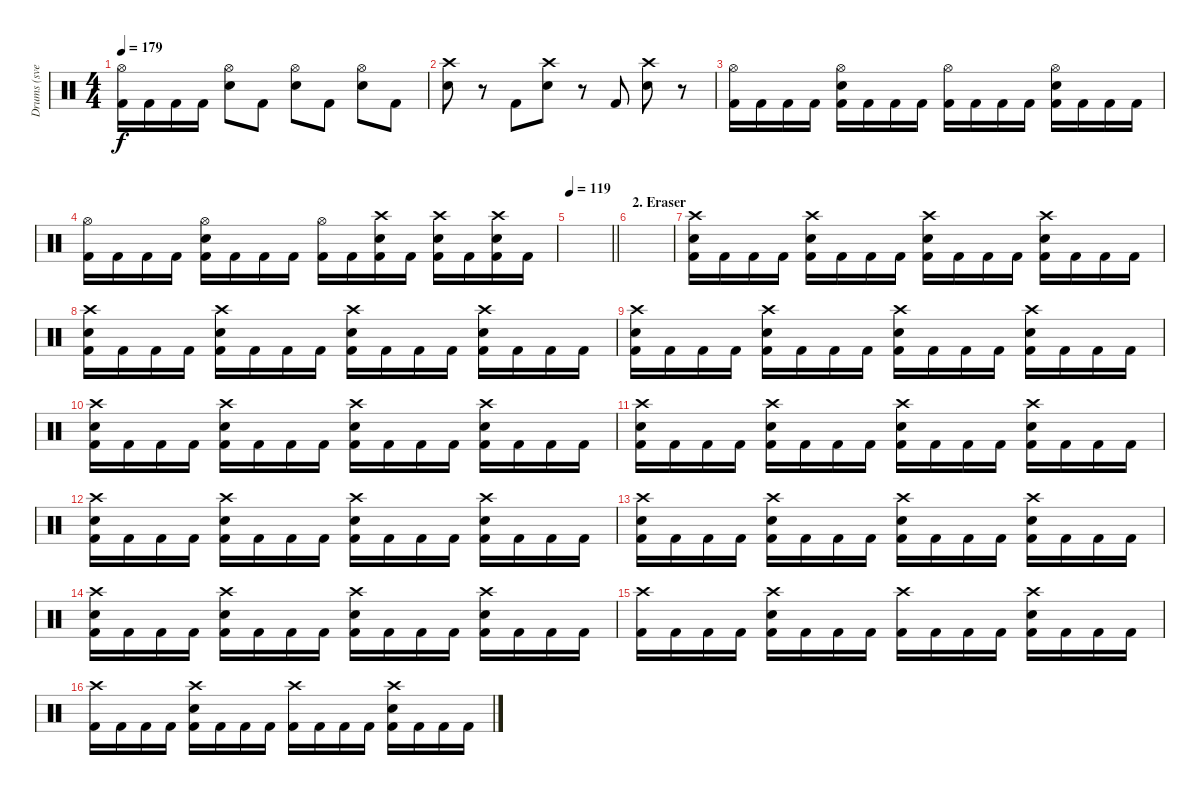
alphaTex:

\track ("Drums (svelle)" "Drums (sve") {instrument percussion}
\staff {score}
\articulation defaults
\ts (4 4)
\tempo 179
\clef neutral
\ks c
("Hi-Hat (open)" "Kick (hit) 2").16{dy f} "Kick (hit) 2".16 "Kick (hit) 2".16 "Kick (hit) 2".16 ("Hi-Hat (open)" "Electric Snare (hit)").8 "Kick (hit) 2".8 ("Hi-Hat (open)" "Electric Snare (hit)").8 "Kick (hit) 2".8 ("Hi-Hat (open)" "Electric Snare (hit)").8 "Kick (hit) 2".8 |
("Crash high (hit)" "Electric Snare (hit)").8 r.8 "Kick (hit) 2".8 ("Crash high (hit)" "Electric Snare (hit)").8 r.8 "Kick (hit) 2".8 ("Crash high (hit)" "Electric Snare (hit)").8 r.8 |
("Hi-Hat (open)" "Kick (hit) 2").16 "Kick (hit) 2".16 "Kick (hit) 2".16 "Kick (hit) 2".16 ("Hi-Hat (open)" "Electric Snare (hit)" "Kick (hit) 2").16 "Kick (hit) 2".16 "Kick (hit) 2".16 "Kick (hit) 2".16 ("Hi-Hat (open)" "Kick (hit) 2").16 "Kick (hit) 2".16 "Kick (hit) 2".16 "Kick (hit) 2".16 ("Hi-Hat (open)" "Electric Snare (hit)" "Kick (hit) 2").16 "Kick (hit) 2".16 "Kick (hit) 2".16 "Kick (hit) 2".16 |
("Hi-Hat (open)" "Kick (hit) 2").16 "Kick (hit) 2".16 "Kick (hit) 2".16 "Kick (hit) 2".16 ("Hi-Hat (open)" "Electric Snare (hit)" "Kick (hit) 2").16 "Kick (hit) 2".16 "Kick (hit) 2".16 "Kick (hit) 2".16 ("Hi-Hat (open)" "Kick (hit) 2").16 "Kick (hit) 2".16 ("Crash high (hit)" "Electric Snare (hit)" "Kick (hit) 2").16 "Kick (hit) 2".16 ("Crash high (hit)" "Electric Snare (hit)" "Kick (hit) 2").16 "Kick (hit) 2".16 ("Crash high (hit)" "Electric Snare (hit)" "Kick (hit) 2").16 "Kick (hit) 2".16 |
\tempo 119
\barLineRight lightlight
|
\section ("" "2. Eraser")
|
("Crash high (hit)" "Electric Snare (hit)" "Kick (hit) 2").16 "Kick (hit) 2".16 "Kick (hit) 2".16 "Kick (hit) 2".16 ("Crash high (hit)" "Electric Snare (hit)" "Kick (hit) 2").16 "Kick (hit) 2".16 "Kick (hit) 2".16 "Kick (hit) 2".16 ("Crash high (hit)" "Electric Snare (hit)" "Kick (hit) 2").16 "Kick (hit) 2".16 "Kick (hit) 2".16 "Kick (hit) 2".16 ("Crash high (hit)" "Electric Snare (hit)" "Kick (hit) 2").16 "Kick (hit) 2".16 "Kick (hit) 2".16 "Kick (hit) 2".16 |
("Crash high (hit)" "Electric Snare (hit)" "Kick (hit) 2").16 "Kick (hit) 2".16 "Kick (hit) 2".16 "Kick (hit) 2".16 ("Crash high (hit)" "Electric Snare (hit)" "Kick (hit) 2").16 "Kick (hit) 2".16 "Kick (hit) 2".16 "Kick (hit) 2".16 ("Crash high (hit)" "Electric Snare (hit)" "Kick (hit) 2").16 "Kick (hit) 2".16 "Kick (hit) 2".16 "Kick (hit) 2".16 ("Crash high (hit)" "Electric Snare (hit)" "Kick (hit) 2").16 "Kick (hit) 2".16 "Kick (hit) 2".16 "Kick (hit) 2".16 |
("Crash high (hit)" "Electric Snare (hit)" "Kick (hit) 2").16 "Kick (hit) 2".16 "Kick (hit) 2".16 "Kick (hit) 2".16 ("Crash high (hit)" "Electric Snare (hit)" "Kick (hit) 2").16 "Kick (hit) 2".16 "Kick (hit) 2".16 "Kick (hit) 2".16 ("Crash high (hit)" "Electric Snare (hit)" "Kick (hit) 2").16 "Kick (hit) 2".16 "Kick (hit) 2".16 "Kick (hit) 2".16 ("Crash high (hit)" "Electric Snare (hit)" "Kick (hit) 2").16 "Kick (hit) 2".16 "Kick (hit) 2".16 "Kick (hit) 2".16 |
("Crash high (hit)" "Electric Snare (hit)" "Kick (hit) 2").16 "Kick (hit) 2".16 "Kick (hit) 2".16 "Kick (hit) 2".16 ("Crash high (hit)" "Electric Snare (hit)" "Kick (hit) 2").16 "Kick (hit) 2".16 "Kick (hit) 2".16 "Kick (hit) 2".16 ("Crash high (hit)" "Electric Snare (hit)" "Kick (hit) 2").16 "Kick (hit) 2".16 "Kick (hit) 2".16 "Kick (hit) 2".16 ("Crash high (hit)" "Electric Snare (hit)" "Kick (hit) 2").16 "Kick (hit) 2".16 "Kick (hit) 2".16 "Kick (hit) 2".16 |
("Crash high (hit)" "Electric Snare (hit)" "Kick (hit) 2").16 "Kick (hit) 2".16 "Kick (hit) 2".16 "Kick (hit) 2".16 ("Crash high (hit)" "Electric Snare (hit)" "Kick (hit) 2").16 "Kick (hit) 2".16 "Kick (hit) 2".16 "Kick (hit) 2".16 ("Crash high (hit)" "Electric Snare (hit)" "Kick (hit) 2").16 "Kick (hit) 2".16 "Kick (hit) 2".16 "Kick (hit) 2".16 ("Crash high (hit)" "Electric Snare (hit)" "Kick (hit) 2").16 "Kick (hit) 2".16 "Kick (hit) 2".16 "Kick (hit) 2".16 |
("Crash high (hit)" "Electric Snare (hit)" "Kick (hit) 2").16 "Kick (hit) 2".16 "Kick (hit) 2".16 "Kick (hit) 2".16 ("Crash high (hit)" "Electric Snare (hit)" "Kick (hit) 2").16 "Kick (hit) 2".16 "Kick (hit) 2".16 "Kick (hit) 2".16 ("Crash high (hit)" "Electric Snare (hit)" "Kick (hit) 2").16 "Kick (hit) 2".16 "Kick (hit) 2".16 "Kick (hit) 2".16 ("Crash high (hit)" "Electric Snare (hit)" "Kick (hit) 2").16 "Kick (hit) 2".16 "Kick (hit) 2".16 "Kick (hit) 2".16 |
("Crash high (hit)" "Electric Snare (hit)" "Kick (hit) 2").16 "Kick (hit) 2".16 "Kick (hit) 2".16 "Kick (hit) 2".16 ("Crash high (hit)" "Electric Snare (hit)" "Kick (hit) 2").16 "Kick (hit) 2".16 "Kick (hit) 2".16 "Kick (hit) 2".16 ("Crash high (hit)" "Electric Snare (hit)" "Kick (hit) 2").16 "Kick (hit) 2".16 "Kick (hit) 2".16 "Kick (hit) 2".16 ("Crash high (hit)" "Electric Snare (hit)" "Kick (hit) 2").16 "Kick (hit) 2".16 "Kick (hit) 2".16 "Kick (hit) 2".16 |
("Crash high (hit)" "Electric Snare (hit)" "Kick (hit) 2").16 "Kick (hit) 2".16 "Kick (hit) 2".16 "Kick (hit) 2".16 ("Crash high (hit)" "Electric Snare (hit)" "Kick (hit) 2").16 "Kick (hit) 2".16 "Kick (hit) 2".16 "Kick (hit) 2".16 ("Crash high (hit)" "Electric Snare (hit)" "Kick (hit) 2").16 "Kick (hit) 2".16 "Kick (hit) 2".16 "Kick (hit) 2".16 ("Crash high (hit)" "Electric Snare (hit)" "Kick (hit) 2").16 "Kick (hit) 2".16 "Kick (hit) 2".16 "Kick (hit) 2".16 |
("Crash high (hit)" "Kick (hit) 2").16 "Kick (hit) 2".16 "Kick (hit) 2".16 "Kick (hit) 2".16 ("Crash high (hit)" "Electric Snare (hit)" "Kick (hit) 2").16 "Kick (hit) 2".16 "Kick (hit) 2".16 "Kick (hit) 2".16 ("Crash high (hit)" "Kick (hit) 2").16 "Kick (hit) 2".16 "Kick (hit) 2".16 "Kick (hit) 2".16 ("Crash high (hit)" "Electric Snare (hit)" "Kick (hit) 2").16 "Kick (hit) 2".16 "Kick (hit) 2".16 "Kick (hit) 2".16 |
("Crash high (hit)" "Kick (hit) 2").16 "Kick (hit) 2".16 "Kick (hit) 2".16 "Kick (hit) 2".16 ("Crash high (hit)" "Electric Snare (hit)" "Kick (hit) 2").16 "Kick (hit) 2".16 "Kick (hit) 2".16 "Kick (hit) 2".16 ("Crash high (hit)" "Kick (hit) 2").16 "Kick (hit) 2".16 "Kick (hit) 2".16 "Kick (hit) 2".16 ("Crash high (hit)" "Electric Snare (hit)" "Kick (hit) 2").16 "Kick (hit) 2".16 "Kick (hit) 2".16 "Kick (hit) 2".16
